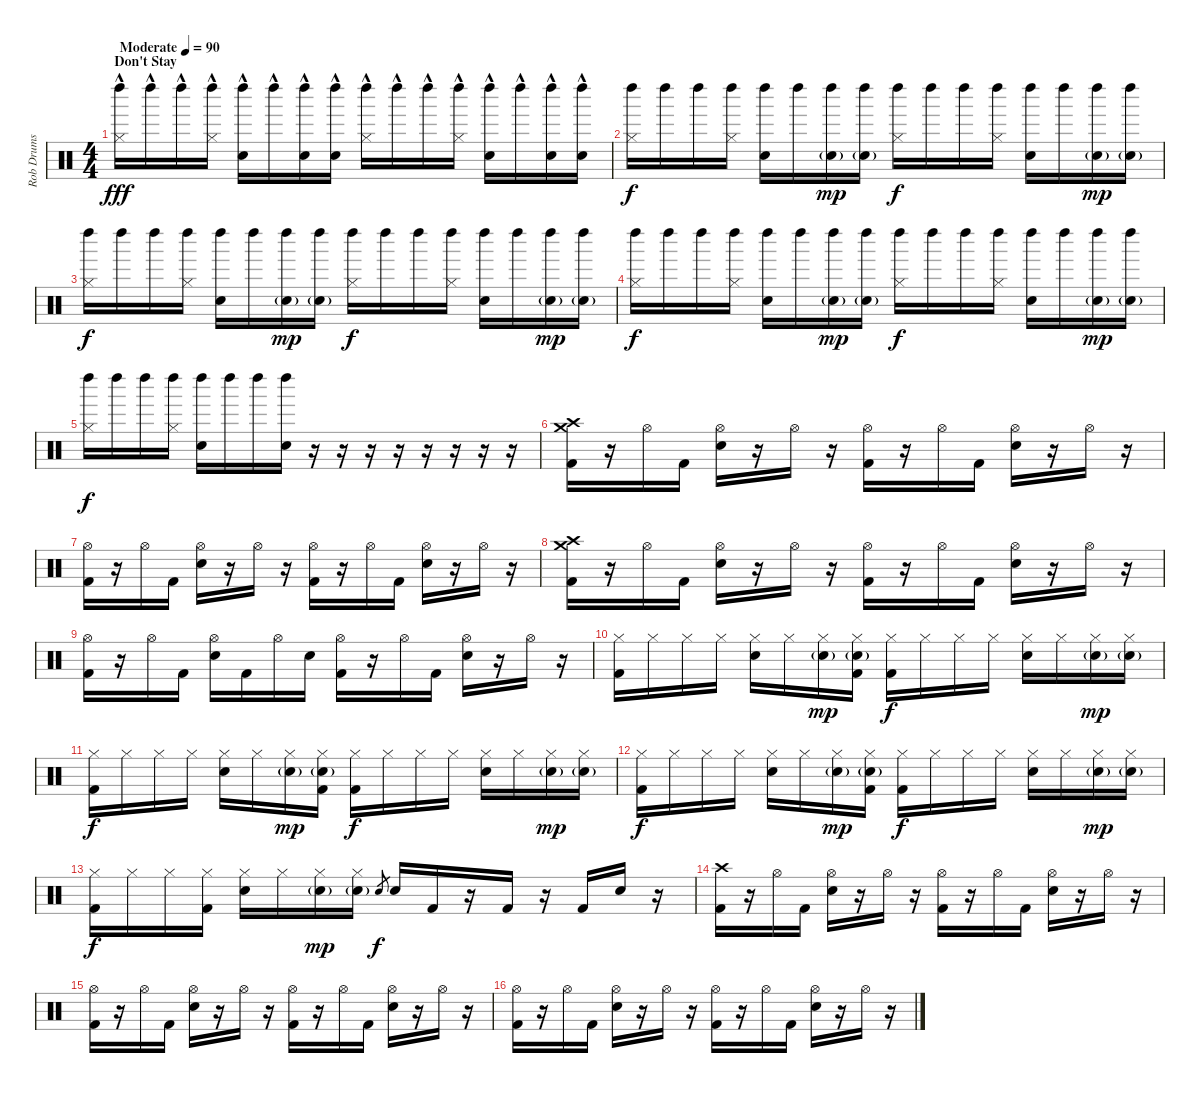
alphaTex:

\track ("Rob Drums" "Rob Drums") {instrument percussion}
\staff {score}
\articulation defaults
\ts (4 4)
\section ("" "Don't Stay")
\tempo (90 "Moderate")
\clef neutral
\ks c
("Left Maraca (hit)"{hac} "Hi-Hat (closed)"{hac}).16{dy fff} "Left Maraca (hit)"{hac}.16 "Left Maraca (hit)"{hac}.16 ("Left Maraca (hit)"{hac} "Hi-Hat (closed)"{hac}).16 ("Left Maraca (hit)"{hac} "Hand Clap (hit)"{hac}).16 "Left Maraca (hit)"{hac}.16 ("Left Maraca (hit)"{hac} "Hand Clap (hit)"{hac}).16 ("Left Maraca (hit)"{hac} "Hand Clap (hit)"{hac}).16 ("Left Maraca (hit)"{hac} "Hi-Hat (closed)"{hac}).16 "Left Maraca (hit)"{hac}.16 "Left Maraca (hit)"{hac}.16 ("Left Maraca (hit)"{hac} "Hi-Hat (closed)"{hac}).16 ("Left Maraca (hit)"{hac} "Hand Clap (hit)"{hac}).16 "Left Maraca (hit)"{hac}.16 ("Left Maraca (hit)"{hac} "Hand Clap (hit)"{hac}).16 ("Left Maraca (hit)"{hac} "Hand Clap (hit)"{hac}).16 |
("Left Maraca (hit)" "Hi-Hat (closed)").16{dy f} "Left Maraca (hit)".16 "Left Maraca (hit)".16 ("Left Maraca (hit)" "Hi-Hat (closed)").16 ("Left Maraca (hit)" "Hand Clap (hit)").16 "Left Maraca (hit)".16 ("Left Maraca (hit)" "Hand Clap (hit)"{g}).16{dy mp} ("Left Maraca (hit)" "Hand Clap (hit)"{g}).16 ("Left Maraca (hit)" "Hi-Hat (closed)").16{dy f} "Left Maraca (hit)".16 "Left Maraca (hit)".16 ("Left Maraca (hit)" "Hi-Hat (closed)").16 ("Left Maraca (hit)" "Hand Clap (hit)").16 "Left Maraca (hit)".16 ("Left Maraca (hit)" "Hand Clap (hit)"{g}).16{dy mp} ("Left Maraca (hit)" "Hand Clap (hit)"{g}).16 |
("Left Maraca (hit)" "Hi-Hat (closed)").16{dy f} "Left Maraca (hit)".16 "Left Maraca (hit)".16 ("Left Maraca (hit)" "Hi-Hat (closed)").16 ("Left Maraca (hit)" "Hand Clap (hit)").16 "Left Maraca (hit)".16 ("Left Maraca (hit)" "Hand Clap (hit)"{g}).16{dy mp} ("Left Maraca (hit)" "Hand Clap (hit)"{g}).16 ("Left Maraca (hit)" "Hi-Hat (closed)").16{dy f} "Left Maraca (hit)".16 "Left Maraca (hit)".16 ("Left Maraca (hit)" "Hi-Hat (closed)").16 ("Left Maraca (hit)" "Hand Clap (hit)").16 "Left Maraca (hit)".16 ("Left Maraca (hit)" "Hand Clap (hit)"{g}).16{dy mp} ("Left Maraca (hit)" "Hand Clap (hit)"{g}).16 |
("Left Maraca (hit)" "Hi-Hat (closed)").16{dy f} "Left Maraca (hit)".16 "Left Maraca (hit)".16 ("Left Maraca (hit)" "Hi-Hat (closed)").16 ("Left Maraca (hit)" "Hand Clap (hit)").16 "Left Maraca (hit)".16 ("Left Maraca (hit)" "Hand Clap (hit)"{g}).16{dy mp} ("Left Maraca (hit)" "Hand Clap (hit)"{g}).16 ("Left Maraca (hit)" "Hi-Hat (closed)").16{dy f} "Left Maraca (hit)".16 "Left Maraca (hit)".16 ("Left Maraca (hit)" "Hi-Hat (closed)").16 ("Left Maraca (hit)" "Hand Clap (hit)").16 "Left Maraca (hit)".16 ("Left Maraca (hit)" "Hand Clap (hit)"{g}).16{dy mp} ("Left Maraca (hit)" "Hand Clap (hit)"{g}).16 |
("Left Maraca (hit)" "Hi-Hat (closed)").16{dy f} "Left Maraca (hit)".16 "Left Maraca (hit)".16 ("Left Maraca (hit)" "Hi-Hat (closed)").16 ("Left Maraca (hit)" "Hand Clap (hit)").16 "Left Maraca (hit)".16 "Left Maraca (hit)".16 ("Left Maraca (hit)" "Hand Clap (hit)").16 r.16 r.16 r.16 r.16 r.16 r.16 r.16 r.16 |
("Crash high (hit)" "Crash medium (hit)" "Kick (hit) 2").16 r.16 "Hi-Hat (open)".16 "Kick (hit) 2".16 ("Hi-Hat (open)" "Electric Snare (hit)").16 r.16 "Hi-Hat (open)".16 r.16 ("Hi-Hat (open)" "Kick (hit) 2").16 r.16 "Hi-Hat (open)".16 "Kick (hit) 2".16 ("Hi-Hat (open)" "Electric Snare (hit)").16 r.16 "Hi-Hat (open)".16 r.16 |
("Hi-Hat (open)" "Kick (hit) 2").16 r.16 "Hi-Hat (open)".16 "Kick (hit) 2".16 ("Hi-Hat (open)" "Electric Snare (hit)").16 r.16 "Hi-Hat (open)".16 r.16 ("Hi-Hat (open)" "Kick (hit) 2").16 r.16 "Hi-Hat (open)".16 "Kick (hit) 2".16 ("Hi-Hat (open)" "Electric Snare (hit)").16 r.16 "Hi-Hat (open)".16 r.16 |
("Crash high (hit)" "Crash medium (hit)" "Kick (hit) 2").16 r.16 "Hi-Hat (open)".16 "Kick (hit) 2".16 ("Hi-Hat (open)" "Electric Snare (hit)").16 r.16 "Hi-Hat (open)".16 r.16 ("Hi-Hat (open)" "Kick (hit) 2").16 r.16 "Hi-Hat (open)".16 "Kick (hit) 2".16 ("Hi-Hat (open)" "Electric Snare (hit)").16 r.16 "Hi-Hat (open)".16 r.16 |
("Hi-Hat (open)" "Kick (hit) 2").16 r.16 "Hi-Hat (open)".16 "Kick (hit) 2".16 ("Hi-Hat (open)" "Electric Snare (hit)").16 "Kick (hit) 2".16 "Hi-Hat (open)".16 "Electric Snare (hit)".16 ("Hi-Hat (open)" "Kick (hit) 2").16 r.16 "Hi-Hat (open)".16 "Kick (hit) 2".16 ("Hi-Hat (open)" "Electric Snare (hit)").16 r.16 "Hi-Hat (open)".16 r.16 |
("Hi-Hat (closed)" "Kick (hit) 2").16 "Hi-Hat (closed)".16 "Hi-Hat (closed)".16 "Hi-Hat (closed)".16 ("Hi-Hat (closed)" "Hand Clap (hit)").16 "Hi-Hat (closed)".16 ("Hi-Hat (closed)" "Hand Clap (hit)"{g}).16{dy mp} ("Hi-Hat (closed)" "Hand Clap (hit)"{g} "Kick (hit) 2").16 ("Hi-Hat (closed)" "Kick (hit) 2").16{dy f} "Hi-Hat (closed)".16 "Hi-Hat (closed)".16 "Hi-Hat (closed)".16 ("Hi-Hat (closed)" "Hand Clap (hit)").16 "Hi-Hat (closed)".16 ("Hi-Hat (closed)" "Hand Clap (hit)"{g}).16{dy mp} ("Hi-Hat (closed)" "Hand Clap (hit)"{g}).16 |
("Hi-Hat (closed)" "Kick (hit) 2").16{dy f} "Hi-Hat (closed)".16 "Hi-Hat (closed)".16 "Hi-Hat (closed)".16 ("Hi-Hat (closed)" "Hand Clap (hit)").16 "Hi-Hat (closed)".16 ("Hi-Hat (closed)" "Hand Clap (hit)"{g}).16{dy mp} ("Hi-Hat (closed)" "Hand Clap (hit)"{g} "Kick (hit) 2").16 ("Hi-Hat (closed)" "Kick (hit) 2").16{dy f} "Hi-Hat (closed)".16 "Hi-Hat (closed)".16 "Hi-Hat (closed)".16 ("Hi-Hat (closed)" "Hand Clap (hit)").16 "Hi-Hat (closed)".16 ("Hi-Hat (closed)" "Hand Clap (hit)"{g}).16{dy mp} ("Hi-Hat (closed)" "Hand Clap (hit)"{g}).16 |
("Hi-Hat (closed)" "Kick (hit) 2").16{dy f} "Hi-Hat (closed)".16 "Hi-Hat (closed)".16 "Hi-Hat (closed)".16 ("Hi-Hat (closed)" "Hand Clap (hit)").16 "Hi-Hat (closed)".16 ("Hi-Hat (closed)" "Hand Clap (hit)"{g}).16{dy mp} ("Hi-Hat (closed)" "Hand Clap (hit)"{g} "Kick (hit) 2").16 ("Hi-Hat (closed)" "Kick (hit) 2").16{dy f} "Hi-Hat (closed)".16 "Hi-Hat (closed)".16 "Hi-Hat (closed)".16 ("Hi-Hat (closed)" "Hand Clap (hit)").16 "Hi-Hat (closed)".16 ("Hi-Hat (closed)" "Hand Clap (hit)"{g}).16{dy mp} ("Hi-Hat (closed)" "Hand Clap (hit)"{g}).16 |
("Hi-Hat (closed)" "Kick (hit) 2").16{dy f} "Hi-Hat (closed)".16 "Hi-Hat (closed)".16 ("Hi-Hat (closed)" "Kick (hit) 2").16 ("Hi-Hat (closed)" "Hand Clap (hit)").16 "Hi-Hat (closed)".16 ("Hi-Hat (closed)" "Hand Clap (hit)"{g}).16{dy mp} ("Hi-Hat (closed)" "Hand Clap (hit)"{g}).16 "Electric Snare (hit)".8{gr dy f} "Electric Snare (hit)".16 "Kick (hit) 2".16 r.16 "Kick (hit) 2".16 r.16 "Kick (hit) 2".16 "Electric Snare (hit)".16 r.16 |
("Crash high (hit)" "Kick (hit) 2").16 r.16 "Hi-Hat (open)".16 "Kick (hit) 2".16 ("Hi-Hat (open)" "Electric Snare (hit)").16 r.16 "Hi-Hat (open)".16 r.16 ("Hi-Hat (open)" "Kick (hit) 2").16 r.16 "Hi-Hat (open)".16 "Kick (hit) 2".16 ("Hi-Hat (open)" "Electric Snare (hit)").16 r.16 "Hi-Hat (open)".16 r.16 |
("Hi-Hat (open)" "Kick (hit) 2").16 r.16 "Hi-Hat (open)".16 "Kick (hit) 2".16 ("Hi-Hat (open)" "Electric Snare (hit)").16 r.16 "Hi-Hat (open)".16 r.16 ("Hi-Hat (open)" "Kick (hit) 2").16 r.16 "Hi-Hat (open)".16 "Kick (hit) 2".16 ("Hi-Hat (open)" "Electric Snare (hit)").16 r.16 "Hi-Hat (open)".16 r.16 |
("Hi-Hat (open)" "Kick (hit) 2").16 r.16 "Hi-Hat (open)".16 "Kick (hit) 2".16 ("Hi-Hat (open)" "Electric Snare (hit)").16 r.16 "Hi-Hat (open)".16 r.16 ("Hi-Hat (open)" "Kick (hit) 2").16 r.16 "Hi-Hat (open)".16 "Kick (hit) 2".16 ("Hi-Hat (open)" "Electric Snare (hit)").16 r.16 "Hi-Hat (open)".16 r.16
